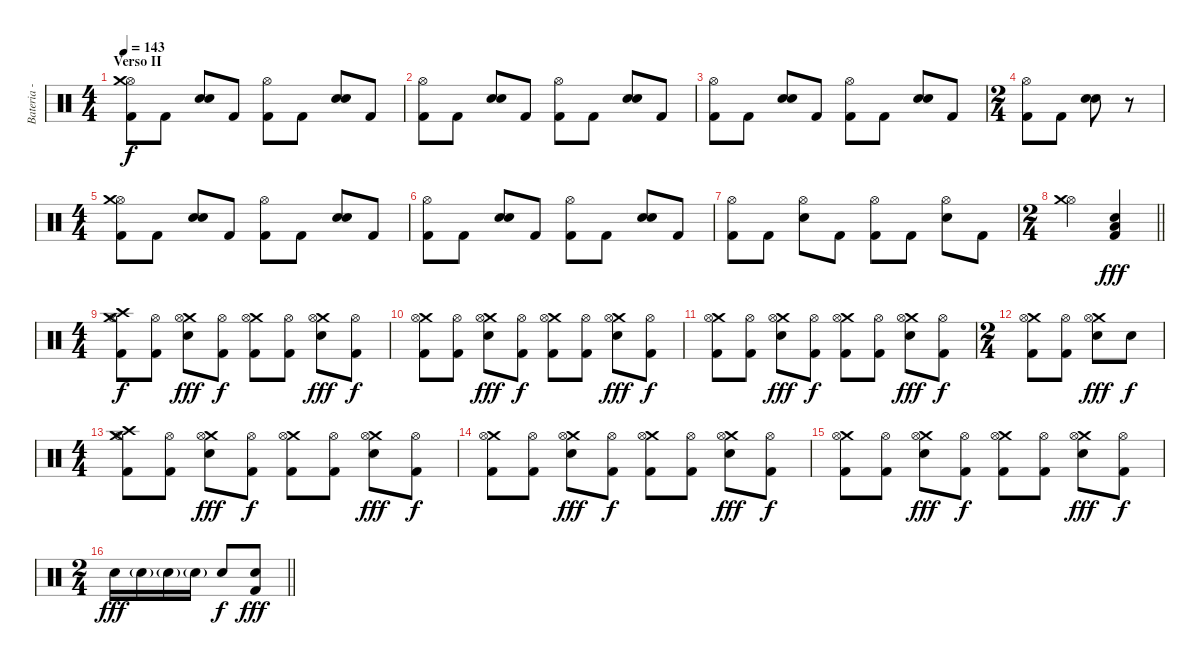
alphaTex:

\track ("Bateria - Larzon" "Bateria - ") {instrument percussion}
\staff {score}
\articulation defaults
\ts (4 4)
\section ("" "Verso II")
\tempo 143
\clef neutral
\ks c
("Kick (hit) 2" "Hi-Hat (open)" "Crash medium (hit)").8{dy f} "Kick (hit) 2".8 ("Electric Snare (hit)" "Snare (hit) 2").8 "Kick (hit) 2".8 ("Kick (hit) 2" "Hi-Hat (open)").8 "Kick (hit) 2".8 ("Electric Snare (hit)" "Snare (hit) 2").8 "Kick (hit) 2".8 |
("Kick (hit) 2" "Hi-Hat (open)").8 "Kick (hit) 2".8 ("Electric Snare (hit)" "Snare (hit) 2").8 "Kick (hit) 2".8 ("Kick (hit) 2" "Hi-Hat (open)").8 "Kick (hit) 2".8 ("Electric Snare (hit)" "Snare (hit) 2").8 "Kick (hit) 2".8 |
("Kick (hit) 2" "Hi-Hat (open)").8 "Kick (hit) 2".8 ("Electric Snare (hit)" "Snare (hit) 2").8 "Kick (hit) 2".8 ("Kick (hit) 2" "Hi-Hat (open)").8 "Kick (hit) 2".8 ("Electric Snare (hit)" "Snare (hit) 2").8 "Kick (hit) 2".8 |
\ts (2 4)
("Kick (hit) 2" "Hi-Hat (open)").8 "Kick (hit) 2".8 ("Electric Snare (hit)" "Snare (hit) 2").8 r.8 |
\ts (4 4)
("Kick (hit) 2" "Hi-Hat (open)" "Crash medium (hit)").8 "Kick (hit) 2".8 ("Electric Snare (hit)" "Snare (hit) 2").8 "Kick (hit) 2".8 ("Kick (hit) 2" "Hi-Hat (open)").8 "Kick (hit) 2".8 ("Electric Snare (hit)" "Snare (hit) 2").8 "Kick (hit) 2".8 |
("Kick (hit) 2" "Hi-Hat (open)").8 "Kick (hit) 2".8 ("Electric Snare (hit)" "Snare (hit) 2").8 "Kick (hit) 2".8 ("Kick (hit) 2" "Hi-Hat (open)").8 "Kick (hit) 2".8 ("Electric Snare (hit)" "Snare (hit) 2").8 "Kick (hit) 2".8 |
("Kick (hit) 2" "Hi-Hat (open)").8 "Kick (hit) 2".8 ("Electric Snare (hit)" "Hi-Hat (open)").8 "Kick (hit) 2".8 ("Kick (hit) 2" "Hi-Hat (open)").8 "Kick (hit) 2".8 ("Electric Snare (hit)" "Hi-Hat (open)").8 "Kick (hit) 2".8 |
\ts (2 4)
\barLineRight lightlight
("Hi-Hat (open)" "Crash medium (hit)").4 ("Kick (hit) 2" "Low Floor Tom (hit)" "Electric Snare (hit)").4{dy fff} |
\ts (4 4)
("Kick (hit) 2" "Crash medium (hit)" "Crash high (hit)" "Hi-Hat (open)").8{dy f} ("Kick (hit) 2" "Hi-Hat (open)").8 ("Electric Snare (hit)" "Crash medium (hit)" "Hi-Hat (open)").8{dy fff} ("Kick (hit) 2" "Hi-Hat (open)").8{dy f} ("Kick (hit) 2" "Crash medium (hit)" "Hi-Hat (open)").8 ("Kick (hit) 2" "Hi-Hat (open)").8 ("Electric Snare (hit)" "Crash medium (hit)" "Hi-Hat (open)").8{dy fff} ("Kick (hit) 2" "Hi-Hat (open)").8{dy f} |
("Kick (hit) 2" "Crash medium (hit)" "Hi-Hat (open)").8 ("Kick (hit) 2" "Hi-Hat (open)").8 ("Electric Snare (hit)" "Crash medium (hit)" "Hi-Hat (open)").8{dy fff} ("Kick (hit) 2" "Hi-Hat (open)").8{dy f} ("Kick (hit) 2" "Crash medium (hit)" "Hi-Hat (open)").8 ("Kick (hit) 2" "Hi-Hat (open)").8 ("Electric Snare (hit)" "Crash medium (hit)" "Hi-Hat (open)").8{dy fff} ("Kick (hit) 2" "Hi-Hat (open)").8{dy f} |
("Kick (hit) 2" "Crash medium (hit)" "Hi-Hat (open)").8 ("Kick (hit) 2" "Hi-Hat (open)").8 ("Electric Snare (hit)" "Crash medium (hit)" "Hi-Hat (open)").8{dy fff} ("Kick (hit) 2" "Hi-Hat (open)").8{dy f} ("Kick (hit) 2" "Crash medium (hit)" "Hi-Hat (open)").8 ("Kick (hit) 2" "Hi-Hat (open)").8 ("Electric Snare (hit)" "Crash medium (hit)" "Hi-Hat (open)").8{dy fff} ("Kick (hit) 2" "Hi-Hat (open)").8{dy f} |
\ts (2 4)
("Kick (hit) 2" "Crash medium (hit)" "Hi-Hat (open)").8 ("Kick (hit) 2" "Hi-Hat (open)").8 ("Electric Snare (hit)" "Crash medium (hit)" "Hi-Hat (open)").8{dy fff} "Electric Snare (hit)".8{dy f} |
\ts (4 4)
("Kick (hit) 2" "Crash medium (hit)" "Crash high (hit)" "Hi-Hat (open)").8 ("Kick (hit) 2" "Hi-Hat (open)").8 ("Electric Snare (hit)" "Crash medium (hit)" "Hi-Hat (open)").8{dy fff} ("Kick (hit) 2" "Hi-Hat (open)").8{dy f} ("Kick (hit) 2" "Crash medium (hit)" "Hi-Hat (open)").8 ("Kick (hit) 2" "Hi-Hat (open)").8 ("Electric Snare (hit)" "Crash medium (hit)" "Hi-Hat (open)").8{dy fff} ("Kick (hit) 2" "Hi-Hat (open)").8{dy f} |
("Kick (hit) 2" "Crash medium (hit)" "Hi-Hat (open)").8 ("Kick (hit) 2" "Hi-Hat (open)").8 ("Electric Snare (hit)" "Crash medium (hit)" "Hi-Hat (open)").8{dy fff} ("Kick (hit) 2" "Hi-Hat (open)").8{dy f} ("Kick (hit) 2" "Crash medium (hit)" "Hi-Hat (open)").8 ("Kick (hit) 2" "Hi-Hat (open)").8 ("Electric Snare (hit)" "Crash medium (hit)" "Hi-Hat (open)").8{dy fff} ("Kick (hit) 2" "Hi-Hat (open)").8{dy f} |
("Kick (hit) 2" "Crash medium (hit)" "Hi-Hat (open)").8 ("Kick (hit) 2" "Hi-Hat (open)").8 ("Electric Snare (hit)" "Crash medium (hit)" "Hi-Hat (open)").8{dy fff} ("Kick (hit) 2" "Hi-Hat (open)").8{dy f} ("Kick (hit) 2" "Crash medium (hit)" "Hi-Hat (open)").8 ("Kick (hit) 2" "Hi-Hat (open)").8 ("Electric Snare (hit)" "Crash medium (hit)" "Hi-Hat (open)").8{dy fff} ("Kick (hit) 2" "Hi-Hat (open)").8{dy f} |
\ts (2 4)
\barLineRight lightlight "Electric Snare (hit)".16{dy fff} "Electric Snare (hit)"{g}.16 "Electric Snare (hit)"{g}.16 "Electric Snare (hit)"{g}.16 "Electric Snare (hit)".8{dy f}
("Kick (hit) 2" "Electric Snare (hit)").8{dy fff}
